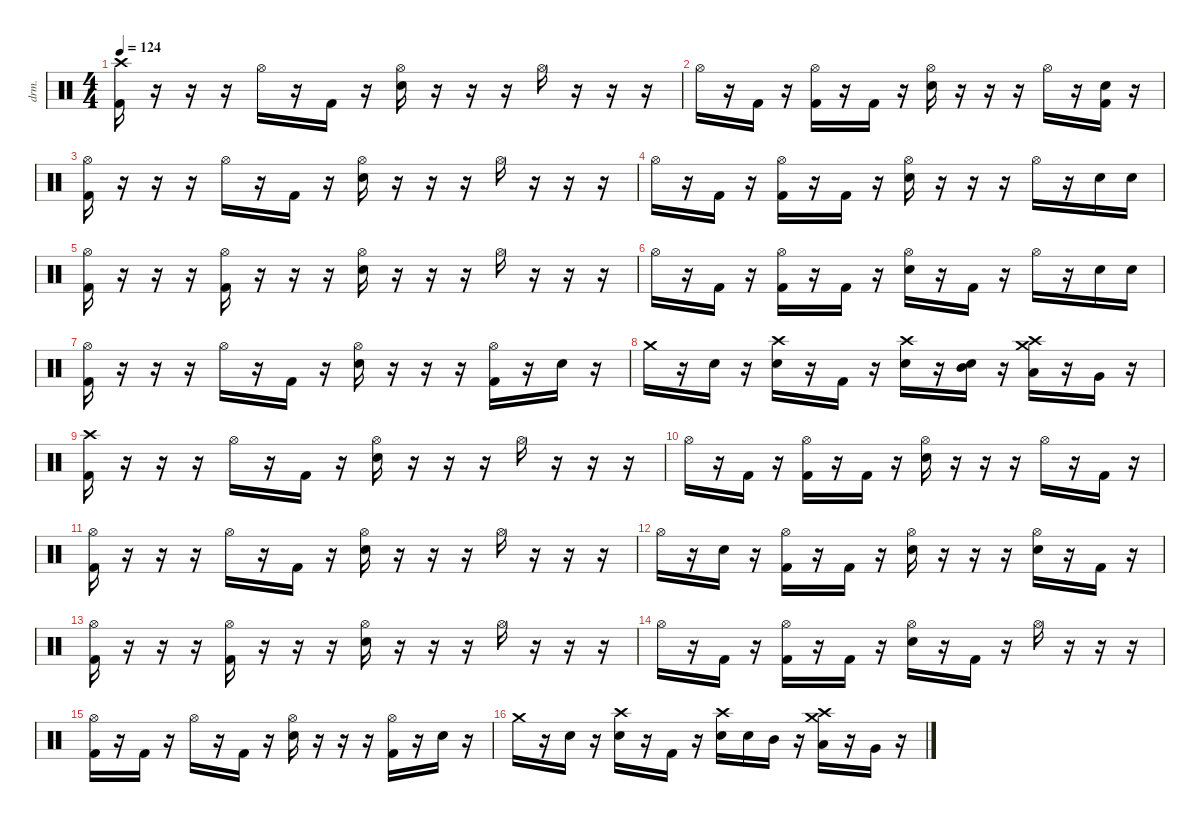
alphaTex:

\defaultSystemsLayout 4
\hideDynamics
\bracketExtendMode nobrackets
\otherSystemsTrackNameOrientation horizontal
\track ("Percussion" "drm.") {instrument percussion}
\staff {score}
\articulation defaults
\ts (4 4)
\tempo 124
\clef neutral
\ks c
("Kick (hit) 2" "Crash high (hit)").16{dy f beam Down} r.16{beam Down} r.16{beam Down} r.16{beam Down} "Hi-Hat (open)".16{beam Down} r.16{beam Down} "Kick (hit) 2".16{beam Down} r.16{beam Down} ("Snare (hit) 2" "Hi-Hat (open)").16{beam Down} r.16{beam Down} r.16{beam Down} r.16{beam Down} "Hi-Hat (open)".16{beam Down} r.16{beam Down} r.16{beam Down} r.16{beam Down} |
"Hi-Hat (open)".16{beam Down} r.16{beam Down} "Kick (hit) 2".16{beam Down} r.16{beam Down} ("Kick (hit) 2" "Hi-Hat (open)").16{beam Down} r.16{beam Down} "Kick (hit) 2".16{beam Down} r.16{beam Down} ("Snare (hit) 2" "Hi-Hat (open)").16{beam Down} r.16{beam Down} r.16{beam Down} r.16{beam Down} "Hi-Hat (open)".16{beam Down} r.16{beam Down} ("Kick (hit) 2" "Snare (hit) 2").16{beam Down} r.16{beam Down} |
("Kick (hit) 2" "Hi-Hat (open)").16{beam Down} r.16{beam Down} r.16{beam Down} r.16{beam Down} "Hi-Hat (open)".16{beam Down} r.16{beam Down} "Kick (hit) 2".16{beam Down} r.16{beam Down} ("Snare (hit) 2" "Hi-Hat (open)").16{beam Down} r.16{beam Down} r.16{beam Down} r.16{beam Down} "Hi-Hat (open)".16{beam Down} r.16{beam Down} r.16{beam Down} r.16{beam Down} |
"Hi-Hat (open)".16{beam Down} r.16{beam Down} "Kick (hit) 2".16{beam Down} r.16{beam Down} ("Kick (hit) 2" "Hi-Hat (open)").16{beam Down} r.16{beam Down} "Kick (hit) 2".16{beam Down} r.16{beam Down} ("Snare (hit) 2" "Hi-Hat (open)").16{beam Down} r.16{beam Down} r.16{beam Down} r.16{beam Down} "Hi-Hat (open)".16{beam Down} r.16{beam Down} "Snare (hit) 2".16{beam Down} "Snare (hit) 2".16{beam Down} |
("Kick (hit) 2" "Hi-Hat (open)").16{beam Down} r.16{beam Down} r.16{beam Down} r.16{beam Down} ("Kick (hit) 2" "Hi-Hat (open)").16{beam Down} r.16{beam Down} r.16{beam Down} r.16{beam Down} ("Snare (hit) 2" "Hi-Hat (open)").16{beam Down} r.16{beam Down} r.16{beam Down} r.16{beam Down} "Hi-Hat (open)".16{beam Down} r.16{beam Down} r.16{beam Down} r.16{beam Down} |
"Hi-Hat (open)".16{beam Down} r.16{beam Down} "Kick (hit) 2".16{beam Down} r.16{beam Down} ("Kick (hit) 2" "Hi-Hat (open)").16{beam Down} r.16{beam Down} "Kick (hit) 2".16{beam Down} r.16{beam Down} ("Snare (hit) 2" "Hi-Hat (open)").16{beam Down} r.16{beam Down} "Kick (hit) 2".16{beam Down} r.16{beam Down} "Hi-Hat (open)".16{beam Down} r.16{beam Down} "Snare (hit) 2".16{beam Down} "Snare (hit) 2".16{beam Down} |
("Kick (hit) 2" "Hi-Hat (open)").16{beam Down} r.16{beam Down} r.16{beam Down} r.16{beam Down} "Hi-Hat (open)".16{beam Down} r.16{beam Down} "Kick (hit) 2".16{beam Down} r.16{beam Down} ("Snare (hit) 2" "Hi-Hat (open)").16{beam Down} r.16{beam Down} r.16{beam Down} r.16{beam Down} ("Kick (hit) 2" "Hi-Hat (open)").16{beam Down} r.16{beam Down} "Snare (hit) 2".16{beam Down} r.16{beam Down} |
"Crash medium (hit)".16{beam Down} r.16{beam Down} "Snare (hit) 2".16{beam Down} r.16{beam Down} ("Snare (hit) 2" "Crash high (hit)").16{beam Down} r.16{beam Down} "Kick (hit) 2".16{beam Down} r.16{beam Down} ("Snare (hit) 2" "Crash high (hit)").16{beam Down} r.16{beam Down} ("Snare (hit) 2" "Mid Tom (hit)").16{beam Down} r.16{beam Down} ("Low Tom (hit)" "Crash medium (hit)" "Crash high (hit)").16{beam Down} r.16{beam Down} "Very Low Tom (hit)".16{beam Down} r.16{beam Down} |
("Kick (hit) 2" "Crash high (hit)").16{beam Down} r.16{beam Down} r.16{beam Down} r.16{beam Down} "Hi-Hat (open)".16{beam Down} r.16{beam Down} "Kick (hit) 2".16{beam Down} r.16{beam Down} ("Snare (hit) 2" "Hi-Hat (open)").16{beam Down} r.16{beam Down} r.16{beam Down} r.16{beam Down} "Hi-Hat (open)".16{beam Down} r.16{beam Down} r.16{beam Down} r.16{beam Down} |
"Hi-Hat (open)".16{beam Down} r.16{beam Down} "Kick (hit) 2".16{beam Down} r.16{beam Down} ("Kick (hit) 2" "Hi-Hat (open)").16{beam Down} r.16{beam Down} "Kick (hit) 2".16{beam Down} r.16{beam Down} ("Snare (hit) 2" "Hi-Hat (open)").16{beam Down} r.16{beam Down} r.16{beam Down} r.16{beam Down} "Hi-Hat (open)".16{beam Down} r.16{beam Down} "Kick (hit) 2".16{beam Down} r.16{beam Down} |
("Kick (hit) 2" "Hi-Hat (open)").16{beam Down} r.16{beam Down} r.16{beam Down} r.16{beam Down} "Hi-Hat (open)".16{beam Down} r.16{beam Down} "Kick (hit) 2".16{beam Down} r.16{beam Down} ("Snare (hit) 2" "Hi-Hat (open)").16{beam Down} r.16{beam Down} r.16{beam Down} r.16{beam Down} "Hi-Hat (open)".16{beam Down} r.16{beam Down} r.16{beam Down} r.16{beam Down} |
"Hi-Hat (open)".16{beam Down} r.16{beam Down} "Snare (hit) 2".16{beam Down} r.16{beam Down} ("Kick (hit) 2" "Hi-Hat (open)").16{beam Down} r.16{beam Down} "Kick (hit) 2".16{beam Down} r.16{beam Down} ("Snare (hit) 2" "Hi-Hat (open)").16{beam Down} r.16{beam Down} r.16{beam Down} r.16{beam Down} ("Snare (hit) 2" "Hi-Hat (open)").16{beam Down} r.16{beam Down} "Kick (hit) 2".16{beam Down} r.16{beam Down} |
("Kick (hit) 2" "Hi-Hat (open)").16{beam Down} r.16{beam Down} r.16{beam Down} r.16{beam Down} ("Kick (hit) 2" "Hi-Hat (open)").16{beam Down} r.16{beam Down} r.16{beam Down} r.16{beam Down} ("Snare (hit) 2" "Hi-Hat (open)").16{beam Down} r.16{beam Down} r.16{beam Down} r.16{beam Down} "Hi-Hat (open)".16{beam Down} r.16{beam Down} r.16{beam Down} r.16{beam Down} |
"Hi-Hat (open)".16{beam Down} r.16{beam Down} "Kick (hit) 2".16{beam Down} r.16{beam Down} ("Kick (hit) 2" "Hi-Hat (open)").16{beam Down} r.16{beam Down} "Kick (hit) 2".16{beam Down} r.16{beam Down} ("Snare (hit) 2" "Hi-Hat (open)").16{beam Down} r.16{beam Down} "Kick (hit) 2".16{beam Down} r.16{beam Down} "Hi-Hat (open)".16{beam Down} r.16{beam Down} r.16{beam Down} r.16{beam Down} |
("Kick (hit) 2" "Hi-Hat (open)").16{beam Down} r.16{beam Down} "Kick (hit) 2".16{beam Down} r.16{beam Down} "Hi-Hat (open)".16{beam Down} r.16{beam Down} "Kick (hit) 2".16{beam Down} r.16{beam Down} ("Snare (hit) 2" "Hi-Hat (open)").16{beam Down} r.16{beam Down} r.16{beam Down} r.16{beam Down} ("Kick (hit) 2" "Hi-Hat (open)").16{beam Down} r.16{beam Down} "Snare (hit) 2".16{beam Down} r.16{beam Down} |
"Crash medium (hit)".16{beam Down} r.16{beam Down} "Snare (hit) 2".16{beam Down} r.16{beam Down} ("Snare (hit) 2" "Crash high (hit)").16{beam Down} r.16{beam Down} "Kick (hit) 2".16{beam Down} r.16{beam Down} ("Snare (hit) 2" "Crash high (hit)").16{beam Down} "Snare (hit) 2".16{beam Down} "Mid Tom (hit)".16{beam Down} r.16{beam Down} ("Low Tom (hit)" "Crash medium (hit)" "Crash high (hit)").16{beam Down} r.16{beam Down} "Very Low Tom (hit)".16{beam Down} r.16{beam Down}
